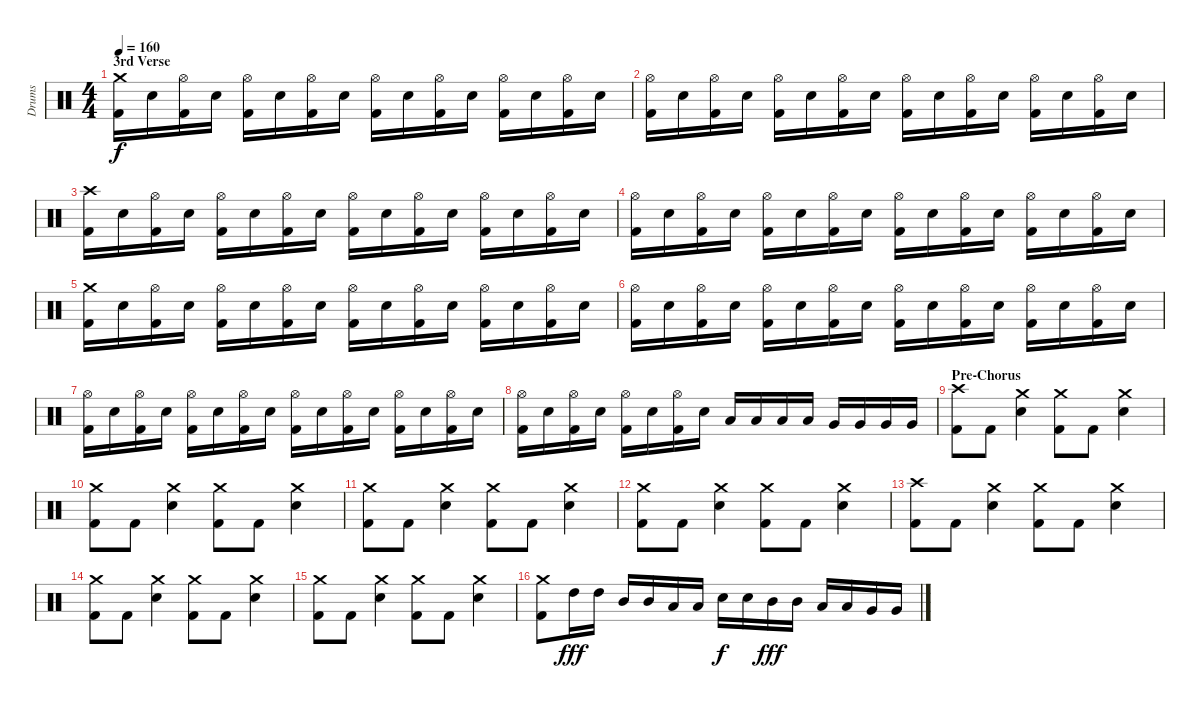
\track ("Drums" "Drums") {instrument percussion}
\staff {score}
\articulation defaults
\ts (4 4)
\section ("" "3rd Verse")
\tempo 160
\clef neutral
\ks c
("Kick (hit) 2" "Crash medium (hit)").16{dy f} "Electric Snare (hit)".16 ("Kick (hit) 2" "Hi-Hat (open)").16 "Electric Snare (hit)".16 ("Kick (hit) 2" "Hi-Hat (open)").16 "Electric Snare (hit)".16 ("Kick (hit) 2" "Hi-Hat (open)").16 "Electric Snare (hit)".16 ("Kick (hit) 2" "Hi-Hat (open)").16 "Electric Snare (hit)".16 ("Kick (hit) 2" "Hi-Hat (open)").16 "Electric Snare (hit)".16 ("Kick (hit) 2" "Hi-Hat (open)").16 "Electric Snare (hit)".16 ("Kick (hit) 2" "Hi-Hat (open)").16 "Electric Snare (hit)".16 |
("Kick (hit) 2" "Hi-Hat (open)").16 "Electric Snare (hit)".16 ("Kick (hit) 2" "Hi-Hat (open)").16 "Electric Snare (hit)".16 ("Kick (hit) 2" "Hi-Hat (open)").16 "Electric Snare (hit)".16 ("Kick (hit) 2" "Hi-Hat (open)").16 "Electric Snare (hit)".16 ("Kick (hit) 2" "Hi-Hat (open)").16 "Electric Snare (hit)".16 ("Kick (hit) 2" "Hi-Hat (open)").16 "Electric Snare (hit)".16 ("Kick (hit) 2" "Hi-Hat (open)").16 "Electric Snare (hit)".16 ("Kick (hit) 2" "Hi-Hat (open)").16 "Electric Snare (hit)".16 |
("Kick (hit) 2" "Crash high (hit)").16 "Electric Snare (hit)".16 ("Kick (hit) 2" "Hi-Hat (open)").16 "Electric Snare (hit)".16 ("Kick (hit) 2" "Hi-Hat (open)").16 "Electric Snare (hit)".16 ("Kick (hit) 2" "Hi-Hat (open)").16 "Electric Snare (hit)".16 ("Kick (hit) 2" "Hi-Hat (open)").16 "Electric Snare (hit)".16 ("Kick (hit) 2" "Hi-Hat (open)").16 "Electric Snare (hit)".16 ("Kick (hit) 2" "Hi-Hat (open)").16 "Electric Snare (hit)".16 ("Kick (hit) 2" "Hi-Hat (open)").16 "Electric Snare (hit)".16 |
("Kick (hit) 2" "Hi-Hat (open)").16 "Electric Snare (hit)".16 ("Kick (hit) 2" "Hi-Hat (open)").16 "Electric Snare (hit)".16 ("Kick (hit) 2" "Hi-Hat (open)").16 "Electric Snare (hit)".16 ("Kick (hit) 2" "Hi-Hat (open)").16 "Electric Snare (hit)".16 ("Kick (hit) 2" "Hi-Hat (open)").16 "Electric Snare (hit)".16 ("Kick (hit) 2" "Hi-Hat (open)").16 "Electric Snare (hit)".16 ("Kick (hit) 2" "Hi-Hat (open)").16 "Electric Snare (hit)".16 ("Kick (hit) 2" "Hi-Hat (open)").16 "Electric Snare (hit)".16 |
("Kick (hit) 2" "Crash medium (hit)").16 "Electric Snare (hit)".16 ("Kick (hit) 2" "Hi-Hat (open)").16 "Electric Snare (hit)".16 ("Kick (hit) 2" "Hi-Hat (open)").16 "Electric Snare (hit)".16 ("Kick (hit) 2" "Hi-Hat (open)").16 "Electric Snare (hit)".16 ("Kick (hit) 2" "Hi-Hat (open)").16 "Electric Snare (hit)".16 ("Kick (hit) 2" "Hi-Hat (open)").16 "Electric Snare (hit)".16 ("Kick (hit) 2" "Hi-Hat (open)").16 "Electric Snare (hit)".16 ("Kick (hit) 2" "Hi-Hat (open)").16 "Electric Snare (hit)".16 |
("Kick (hit) 2" "Hi-Hat (open)").16 "Electric Snare (hit)".16 ("Kick (hit) 2" "Hi-Hat (open)").16 "Electric Snare (hit)".16 ("Kick (hit) 2" "Hi-Hat (open)").16 "Electric Snare (hit)".16 ("Kick (hit) 2" "Hi-Hat (open)").16 "Electric Snare (hit)".16 ("Kick (hit) 2" "Hi-Hat (open)").16 "Electric Snare (hit)".16 ("Kick (hit) 2" "Hi-Hat (open)").16 "Electric Snare (hit)".16 ("Kick (hit) 2" "Hi-Hat (open)").16 "Electric Snare (hit)".16 ("Kick (hit) 2" "Hi-Hat (open)").16 "Electric Snare (hit)".16 |
("Kick (hit) 2" "Hi-Hat (open)").16 "Electric Snare (hit)".16 ("Kick (hit) 2" "Hi-Hat (open)").16 "Electric Snare (hit)".16 ("Kick (hit) 2" "Hi-Hat (open)").16 "Electric Snare (hit)".16 ("Kick (hit) 2" "Hi-Hat (open)").16 "Electric Snare (hit)".16 ("Kick (hit) 2" "Hi-Hat (open)").16 "Electric Snare (hit)".16 ("Kick (hit) 2" "Hi-Hat (open)").16 "Electric Snare (hit)".16 ("Kick (hit) 2" "Hi-Hat (open)").16 "Electric Snare (hit)".16 ("Kick (hit) 2" "Hi-Hat (open)").16 "Electric Snare (hit)".16 |
("Kick (hit) 2" "Hi-Hat (open)").16 "Electric Snare (hit)".16 ("Kick (hit) 2" "Hi-Hat (open)").16 "Electric Snare (hit)".16 ("Kick (hit) 2" "Hi-Hat (open)").16 "Electric Snare (hit)".16 ("Kick (hit) 2" "Hi-Hat (open)").16 "Electric Snare (hit)".16 "Low Tom (hit)".16 "Low Tom (hit)".16 "Low Tom (hit)".16 "Low Tom (hit)".16 "Very Low Tom (hit)".16 "Very Low Tom (hit)".16 "Very Low Tom (hit)".16 "Very Low Tom (hit)".16 |
\section ("" "Pre-Chorus")
("Kick (hit) 2" "Crash high (hit)").8 "Kick (hit) 2".8 ("Electric Snare (hit)" "Crash medium (hit)").4 ("Kick (hit) 2" "Crash medium (hit)").8 "Kick (hit) 2".8 ("Electric Snare (hit)" "Crash medium (hit)").4 |
("Kick (hit) 2" "Crash medium (hit)").8 "Kick (hit) 2".8 ("Electric Snare (hit)" "Crash medium (hit)").4 ("Kick (hit) 2" "Crash medium (hit)").8 "Kick (hit) 2".8 ("Electric Snare (hit)" "Crash medium (hit)").4 |
("Kick (hit) 2" "Crash medium (hit)").8 "Kick (hit) 2".8 ("Electric Snare (hit)" "Crash medium (hit)").4 ("Kick (hit) 2" "Crash medium (hit)").8 "Kick (hit) 2".8 ("Electric Snare (hit)" "Crash medium (hit)").4 |
("Kick (hit) 2" "Crash medium (hit)").8 "Kick (hit) 2".8 ("Electric Snare (hit)" "Crash medium (hit)").4 ("Kick (hit) 2" "Crash medium (hit)").8 "Kick (hit) 2".8 ("Electric Snare (hit)" "Crash medium (hit)").4 |
("Kick (hit) 2" "Crash high (hit)").8 "Kick (hit) 2".8 ("Electric Snare (hit)" "Crash medium (hit)").4 ("Kick (hit) 2" "Crash medium (hit)").8 "Kick (hit) 2".8 ("Electric Snare (hit)" "Crash medium (hit)").4 |
("Kick (hit) 2" "Crash medium (hit)").8 "Kick (hit) 2".8 ("Electric Snare (hit)" "Crash medium (hit)").4 ("Kick (hit) 2" "Crash medium (hit)").8 "Kick (hit) 2".8 ("Electric Snare (hit)" "Crash medium (hit)").4 |
("Kick (hit) 2" "Crash medium (hit)").8 "Kick (hit) 2".8 ("Electric Snare (hit)" "Crash medium (hit)").4 ("Kick (hit) 2" "Crash medium (hit)").8 "Kick (hit) 2".8 ("Electric Snare (hit)" "Crash medium (hit)").4 |
("Kick (hit) 2" "Crash medium (hit)").8 "High Tom (hit)".16{dy fff} "High Tom (hit)".16 "Mid Tom (hit)".16 "Mid Tom (hit)".16 "Low Tom (hit)".16 "Low Tom (hit)".16 "Electric Snare (hit)".16{dy f} "Electric Snare (hit)".16 "Mid Tom (hit)".16{dy fff} "Mid Tom (hit)".16 "Low Tom (hit)".16 "Low Tom (hit)".16 "Very Low Tom (hit)".16 "Very Low Tom (hit)".16
